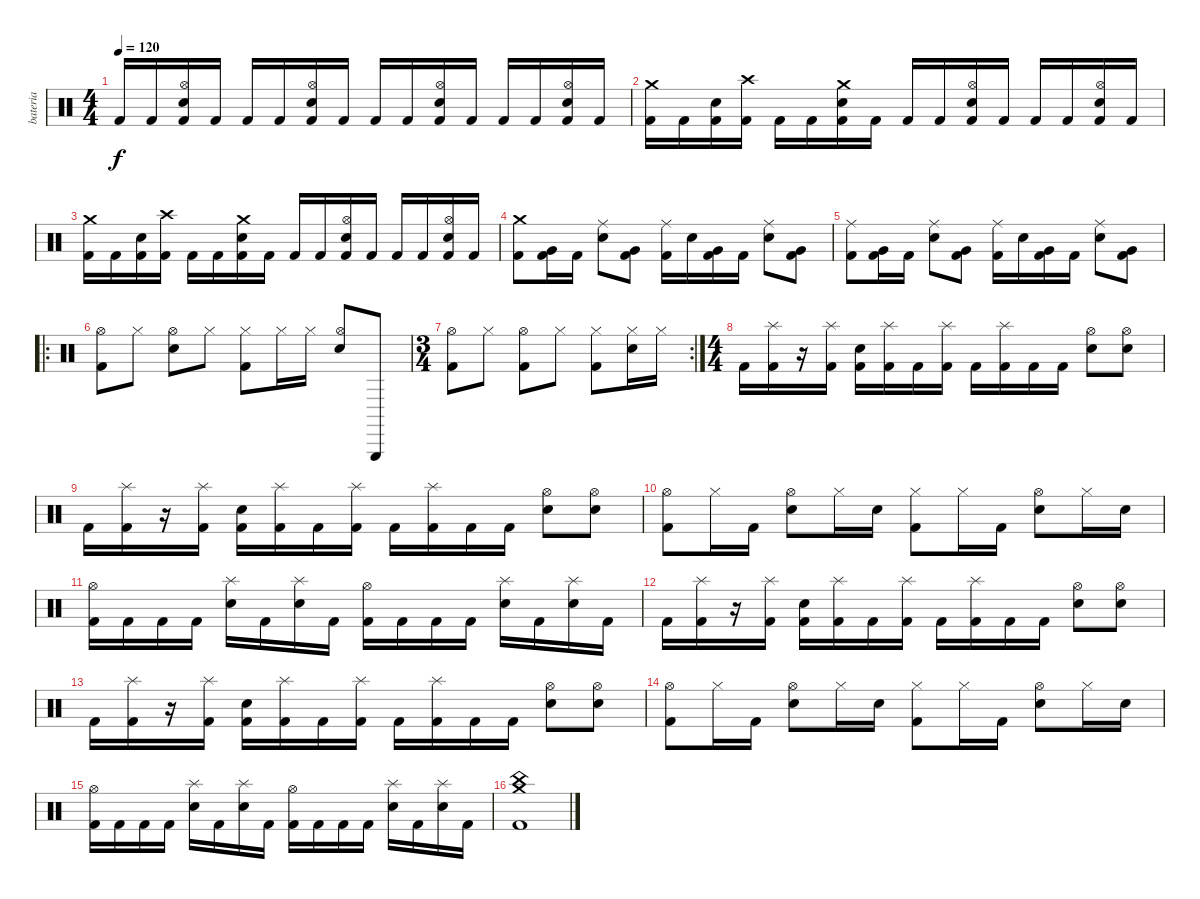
\track ("bateria" "bateria") {instrument percussion}
\staff {score}
\articulation defaults
\ts (4 4)
\tempo 120
\clef neutral
\ks c "Kick (hit) 2".16{dy f} "Kick (hit) 2".16
("Hi-Hat (open)" "Electric Snare (hit)" "Kick (hit) 2").16 "Kick (hit) 2".16 "Kick (hit) 2".16 "Kick (hit) 2".16 ("Hi-Hat (open)" "Electric Snare (hit)" "Kick (hit) 2").16 "Kick (hit) 2".16 "Kick (hit) 2".16 "Kick (hit) 2".16 ("Hi-Hat (open)" "Electric Snare (hit)" "Kick (hit) 2").16 "Kick (hit) 2".16 "Kick (hit) 2".16 "Kick (hit) 2".16 ("Hi-Hat (open)" "Electric Snare (hit)" "Kick (hit) 2").16 "Kick (hit) 2".16 |
("Crash medium (hit)" "Kick (hit) 2").16 "Kick (hit) 2".16 ("Electric Snare (hit)" "Kick (hit) 2").16 ("Crash high (hit)" "Kick (hit) 2").16 "Kick (hit) 2".16 "Kick (hit) 2".16 ("Crash medium (hit)" "Electric Snare (hit)" "Kick (hit) 2").16 "Kick (hit) 2".16 "Kick (hit) 2".16 "Kick (hit) 2".16 ("Hi-Hat (open)" "Electric Snare (hit)" "Kick (hit) 2").16 "Kick (hit) 2".16 "Kick (hit) 2".16 "Kick (hit) 2".16 ("Hi-Hat (open)" "Electric Snare (hit)" "Kick (hit) 2").16 "Kick (hit) 2".16 |
("Crash medium (hit)" "Kick (hit) 2").16 "Kick (hit) 2".16 ("Electric Snare (hit)" "Kick (hit) 2").16 ("Crash high (hit)" "Kick (hit) 2").16 "Kick (hit) 2".16 "Kick (hit) 2".16 ("Crash medium (hit)" "Electric Snare (hit)" "Kick (hit) 2").16 "Kick (hit) 2".16 "Kick (hit) 2".16 "Kick (hit) 2".16 ("Hi-Hat (open)" "Electric Snare (hit)" "Kick (hit) 2").16 "Kick (hit) 2".16 "Kick (hit) 2".16 "Kick (hit) 2".16 ("Hi-Hat (open)" "Electric Snare (hit)" "Kick (hit) 2").16 "Kick (hit) 2".16 |
("Crash medium (hit)" "Kick (hit) 2").8 ("Very Low Tom (hit)" "Kick (hit) 2").16 "Kick (hit) 2".16 ("Ride (middle)" "Electric Snare (hit)").8 ("Very Low Tom (hit)" "Kick (hit) 2").8 ("Ride (middle)" "Kick (hit) 2").16 "Electric Snare (hit)".16 ("Very Low Tom (hit)" "Kick (hit) 2").16 "Kick (hit) 2".16 ("Ride (middle)" "Electric Snare (hit)").8 ("Very Low Tom (hit)" "Kick (hit) 2").8 |
("Ride (middle)" "Kick (hit) 2").8 ("Very Low Tom (hit)" "Kick (hit) 2").16 "Kick (hit) 2".16 ("Ride (middle)" "Electric Snare (hit)").8 ("Very Low Tom (hit)" "Kick (hit) 2").8 ("Ride (middle)" "Kick (hit) 2").16 "Electric Snare (hit)".16 ("Very Low Tom (hit)" "Kick (hit) 2").16 "Kick (hit) 2".16 ("Ride (middle)" "Electric Snare (hit)").8 ("Very Low Tom (hit)" "Kick (hit) 2").8 |
\ro
("Hi-Hat (open)" "Kick (hit) 2").8 "Hi-Hat (closed)".8 ("Hi-Hat (open)" "Electric Snare (hit)").8 "Hi-Hat (closed)".8 ("Hi-Hat (closed)" "Kick (hit) 2").8 "Hi-Hat (closed)".16 "Hi-Hat (closed)".16 ("Hi-Hat (open)" "Electric Snare (hit)").8 "Triangle (hit)".8 |
\rc 2
\ts (3 4)
("Hi-Hat (open)" "Kick (hit) 2").8 "Hi-Hat (closed)".8 ("Hi-Hat (open)" "Kick (hit) 2").8 "Hi-Hat (closed)".8 ("Hi-Hat (closed)" "Kick (hit) 2").8 ("Hi-Hat (closed)" "Electric Snare (hit)").16 "Hi-Hat (closed)".16 |
\ts (4 4)
"Kick (hit) 2".16 ("Splash (hit)" "Kick (hit) 2").16 r.16 ("Splash (hit)" "Kick (hit) 2").16 ("Electric Snare (hit)" "Kick (hit) 2").16 ("Splash (hit)" "Kick (hit) 2").16 "Kick (hit) 2".16 ("Splash (hit)" "Kick (hit) 2").16 "Kick (hit) 2".16 ("Splash (hit)" "Kick (hit) 2").16 "Kick (hit) 2".16 "Kick (hit) 2".16 ("Hi-Hat (open)" "Electric Snare (hit)").8 ("Hi-Hat (open)" "Electric Snare (hit)").8 |
"Kick (hit) 2".16 ("Splash (hit)" "Kick (hit) 2").16 r.16 ("Splash (hit)" "Kick (hit) 2").16 ("Electric Snare (hit)" "Kick (hit) 2").16 ("Splash (hit)" "Kick (hit) 2").16 "Kick (hit) 2".16 ("Splash (hit)" "Kick (hit) 2").16 "Kick (hit) 2".16 ("Splash (hit)" "Kick (hit) 2").16 "Kick (hit) 2".16 "Kick (hit) 2".16 ("Hi-Hat (open)" "Electric Snare (hit)").8 ("Hi-Hat (open)" "Electric Snare (hit)").8 |
("Hi-Hat (open)" "Kick (hit) 2").8 "Hi-Hat (closed)".16 "Kick (hit) 2".16 ("Hi-Hat (open)" "Electric Snare (hit)").8 "Hi-Hat (closed)".16 "Electric Snare (hit)".16 ("Hi-Hat (closed)" "Kick (hit) 2").8 "Hi-Hat (closed)".16 "Kick (hit) 2".16 ("Hi-Hat (open)" "Electric Snare (hit)").8 "Hi-Hat (closed)".16 "Electric Snare (hit)".16 |
("Hi-Hat (open)" "Kick (hit) 2").16 "Kick (hit) 2".16 "Kick (hit) 2".16 "Kick (hit) 2".16 ("Splash (hit)" "Electric Snare (hit)").16 "Kick (hit) 2".16 ("Splash (hit)" "Electric Snare (hit)").16 "Kick (hit) 2".16 ("Hi-Hat (open)" "Kick (hit) 2").16 "Kick (hit) 2".16 "Kick (hit) 2".16 "Kick (hit) 2".16 ("Splash (hit)" "Electric Snare (hit)").16 "Kick (hit) 2".16 ("Splash (hit)" "Electric Snare (hit)").16 "Kick (hit) 2".16 |
"Kick (hit) 2".16 ("Splash (hit)" "Kick (hit) 2").16 r.16 ("Splash (hit)" "Kick (hit) 2").16 ("Electric Snare (hit)" "Kick (hit) 2").16 ("Splash (hit)" "Kick (hit) 2").16 "Kick (hit) 2".16 ("Splash (hit)" "Kick (hit) 2").16 "Kick (hit) 2".16 ("Splash (hit)" "Kick (hit) 2").16 "Kick (hit) 2".16 "Kick (hit) 2".16 ("Hi-Hat (open)" "Electric Snare (hit)").8 ("Hi-Hat (open)" "Electric Snare (hit)").8 |
"Kick (hit) 2".16 ("Splash (hit)" "Kick (hit) 2").16 r.16 ("Splash (hit)" "Kick (hit) 2").16 ("Electric Snare (hit)" "Kick (hit) 2").16 ("Splash (hit)" "Kick (hit) 2").16 "Kick (hit) 2".16 ("Splash (hit)" "Kick (hit) 2").16 "Kick (hit) 2".16 ("Splash (hit)" "Kick (hit) 2").16 "Kick (hit) 2".16 "Kick (hit) 2".16 ("Hi-Hat (open)" "Electric Snare (hit)").8 ("Hi-Hat (open)" "Electric Snare (hit)").8 |
("Hi-Hat (open)" "Kick (hit) 2").8 "Hi-Hat (closed)".16 "Kick (hit) 2".16 ("Hi-Hat (open)" "Electric Snare (hit)").8 "Hi-Hat (closed)".16 "Electric Snare (hit)".16 ("Hi-Hat (closed)" "Kick (hit) 2").8 "Hi-Hat (closed)".16 "Kick (hit) 2".16 ("Hi-Hat (open)" "Electric Snare (hit)").8 "Hi-Hat (closed)".16 "Electric Snare (hit)".16 |
("Hi-Hat (open)" "Kick (hit) 2").16 "Kick (hit) 2".16 "Kick (hit) 2".16 "Kick (hit) 2".16 ("Splash (hit)" "Electric Snare (hit)").16 "Kick (hit) 2".16 ("Splash (hit)" "Electric Snare (hit)").16 "Kick (hit) 2".16 ("Hi-Hat (open)" "Kick (hit) 2").16 "Kick (hit) 2".16 "Kick (hit) 2".16 "Kick (hit) 2".16 ("Splash (hit)" "Electric Snare (hit)").16 "Kick (hit) 2".16 ("Splash (hit)" "Electric Snare (hit)").16 "Kick (hit) 2".16 |
("Crash medium (hit)" "China (hit)" "Kick (hit) 2").1
